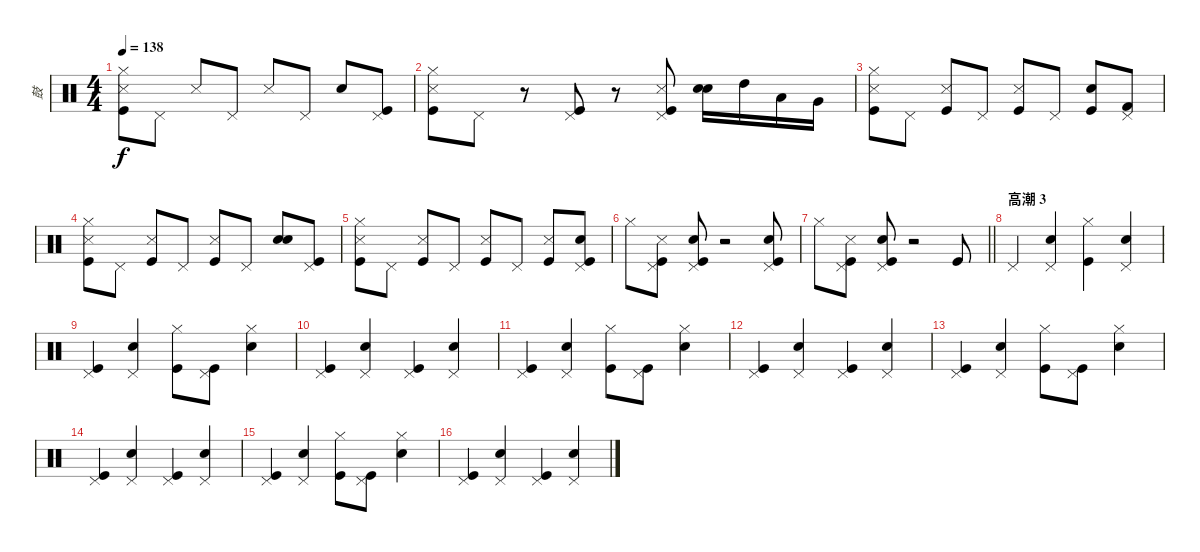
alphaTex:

\track ("鼓" "鼓") {instrument percussion}
\staff {score}
\articulation defaults
\ts (4 4)
\tempo 138
\clef neutral
\ks c
("Snare (side stick) 3" "Kick (hit)" "Hi-Hat (closed)").8{dy f} "Pedal Hi-Hat (hit)".8 "Snare (side stick) 3".8 "Pedal Hi-Hat (hit)".8 "Snare (side stick) 3".8 "Pedal Hi-Hat (hit)".8 "Hand Clap (hit)".8 ("Kick (hit)" "Pedal Hi-Hat (hit)").8 |
("Snare (side stick) 3" "Kick (hit)" "Hi-Hat (closed)").8 "Pedal Hi-Hat (hit)".8 r.8 ("Kick (hit)" "Pedal Hi-Hat (hit)").8 r.8 ("Snare (side stick) 3" "Kick (hit)" "Pedal Hi-Hat (hit)").8 ("Hand Clap (hit)" "Electric Snare (hit)").16 "High Tom (hit)".16 "Low Tom (hit)".16 "Very Low Tom (hit)".16 |
("Snare (side stick) 3" "Kick (hit)" "Hi-Hat (closed)").8 "Pedal Hi-Hat (hit)".8 ("Snare (side stick) 3" "Kick (hit)").8 "Pedal Hi-Hat (hit)".8 ("Snare (side stick) 3" "Kick (hit)").8 "Pedal Hi-Hat (hit)".8 ("Hand Clap (hit)" "Kick (hit)").8 ("Kick (hit) 2" "Pedal Hi-Hat (hit)").8 |
("Snare (side stick) 3" "Kick (hit)" "Hi-Hat (closed)").8 "Pedal Hi-Hat (hit)".8 ("Snare (side stick) 3" "Kick (hit)").8 "Pedal Hi-Hat (hit)".8 ("Snare (side stick) 3" "Kick (hit)").8 "Pedal Hi-Hat (hit)".8 ("Hand Clap (hit)" "Snare (hit) 2").8 ("Kick (hit)" "Pedal Hi-Hat (hit)").8 |
("Snare (side stick) 3" "Kick (hit)" "Hi-Hat (closed)").8 "Pedal Hi-Hat (hit)".8 ("Snare (side stick) 3" "Kick (hit)").8 "Pedal Hi-Hat (hit)".8 ("Snare (side stick) 3" "Kick (hit)").8 "Pedal Hi-Hat (hit)".8 ("Snare (side stick) 3" "Kick (hit)").8 ("Hand Clap (hit)" "Kick (hit)" "Pedal Hi-Hat (hit)").8 |
"Hi-Hat (closed)".8 ("Snare (side stick) 3" "Kick (hit)" "Pedal Hi-Hat (hit)").8 ("Hand Clap (hit)" "Kick (hit)" "Pedal Hi-Hat (hit)").8 r.2 ("Hand Clap (hit)" "Kick (hit)" "Pedal Hi-Hat (hit)").8 |
\barLineRight lightlight "Hi-Hat (closed)".8
("Snare (side stick) 3" "Kick (hit)" "Pedal Hi-Hat (hit)").8 ("Hand Clap (hit)" "Kick (hit)" "Pedal Hi-Hat (hit)").8 r.2 "Kick (hit)".8 |
\section ("" "高潮 3")
"Pedal Hi-Hat (hit)".4 ("Snare (hit) 2" "Pedal Hi-Hat (hit)").4 ("Kick (hit)" "Hi-Hat (closed)").4 ("Snare (hit) 2" "Pedal Hi-Hat (hit)").4 |
("Kick (hit)" "Pedal Hi-Hat (hit)").4 ("Snare (hit) 2" "Pedal Hi-Hat (hit)").4 ("Kick (hit)" "Hi-Hat (closed)").8 ("Kick (hit)" "Pedal Hi-Hat (hit)").8 ("Snare (hit) 2" "Hi-Hat (closed)").4 |
("Kick (hit)" "Pedal Hi-Hat (hit)").4 ("Snare (hit) 2" "Pedal Hi-Hat (hit)").4 ("Kick (hit)" "Pedal Hi-Hat (hit)").4 ("Snare (hit) 2" "Pedal Hi-Hat (hit)").4 |
("Kick (hit)" "Pedal Hi-Hat (hit)").4 ("Snare (hit) 2" "Pedal Hi-Hat (hit)").4 ("Kick (hit)" "Hi-Hat (closed)").8 ("Kick (hit)" "Pedal Hi-Hat (hit)").8 ("Snare (hit) 2" "Hi-Hat (closed)").4 |
("Kick (hit)" "Pedal Hi-Hat (hit)").4 ("Snare (hit) 2" "Pedal Hi-Hat (hit)").4 ("Kick (hit)" "Pedal Hi-Hat (hit)").4 ("Snare (hit) 2" "Pedal Hi-Hat (hit)").4 |
("Kick (hit)" "Pedal Hi-Hat (hit)").4 ("Snare (hit) 2" "Pedal Hi-Hat (hit)").4 ("Kick (hit)" "Hi-Hat (closed)").8 ("Kick (hit)" "Pedal Hi-Hat (hit)").8 ("Snare (hit) 2" "Hi-Hat (closed)").4 |
("Kick (hit)" "Pedal Hi-Hat (hit)").4 ("Snare (hit) 2" "Pedal Hi-Hat (hit)").4 ("Kick (hit)" "Pedal Hi-Hat (hit)").4 ("Snare (hit) 2" "Pedal Hi-Hat (hit)").4 |
("Kick (hit)" "Pedal Hi-Hat (hit)").4 ("Snare (hit) 2" "Pedal Hi-Hat (hit)").4 ("Kick (hit)" "Hi-Hat (closed)").8 ("Kick (hit)" "Pedal Hi-Hat (hit)").8 ("Snare (hit) 2" "Hi-Hat (closed)").4 |
("Kick (hit)" "Pedal Hi-Hat (hit)").4 ("Snare (hit) 2" "Pedal Hi-Hat (hit)").4 ("Kick (hit)" "Pedal Hi-Hat (hit)").4 ("Snare (hit) 2" "Pedal Hi-Hat (hit)").4
